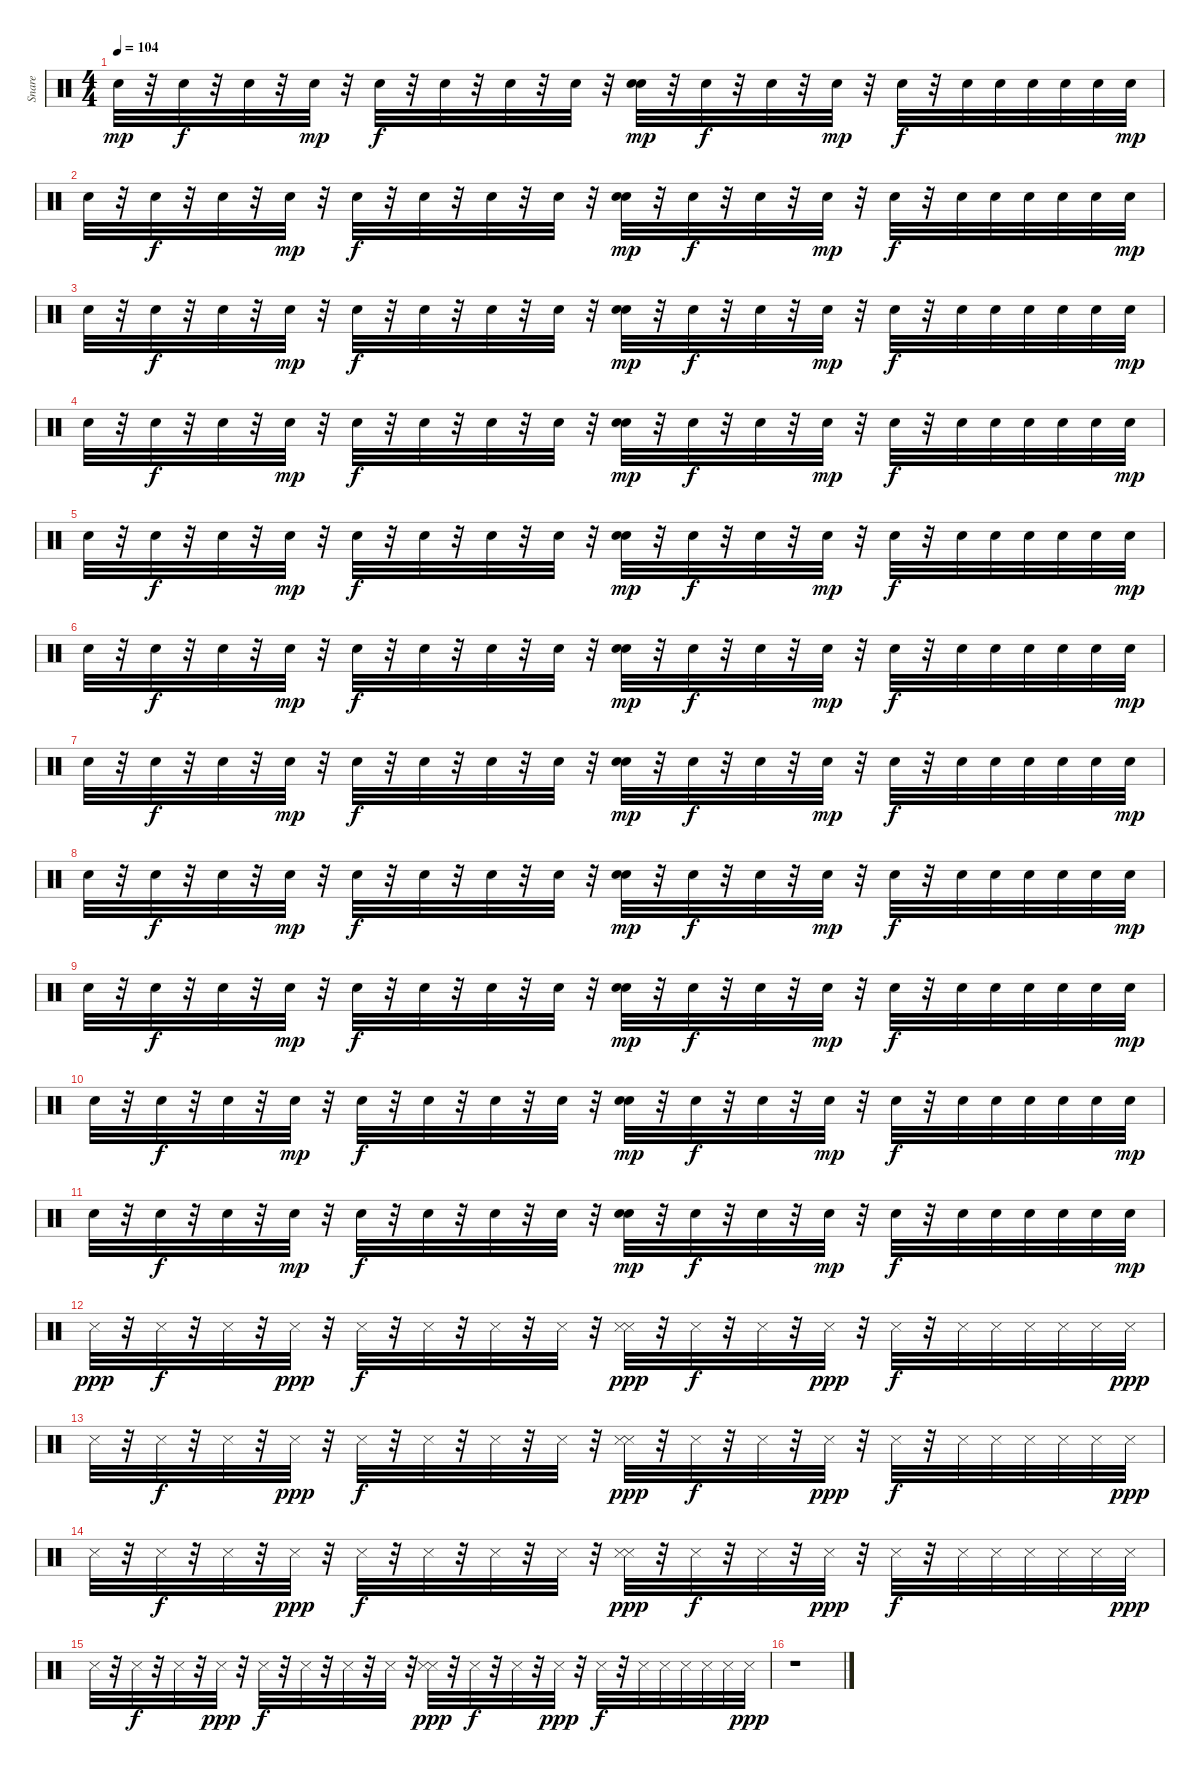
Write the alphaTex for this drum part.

\track ("Snare" "Snare") {instrument percussion}
\staff {score}
\articulation defaults
\ts (4 4)
\tempo 104
\clef neutral
\ks c "Snare (hit) 2".32{dy mp}
r.32 "Snare (hit) 2".32{dy f} r.32 "Snare (hit) 2".32 r.32 "Snare (hit) 2".32{dy mp} r.32 "Snare (hit) 2".32{dy f} r.32 "Snare (hit) 2".32 r.32 "Snare (hit) 2".32 r.32 "Snare (hit) 2".32 r.32 ("Snare (hit) 2" "Snare (hit) 2").32{dy mp} r.32 "Snare (hit) 2".32{dy f} r.32 "Snare (hit) 2".32 r.32 "Snare (hit) 2".32{dy mp} r.32 "Snare (hit) 2".32{dy f} r.32 "Snare (hit) 2".32 "Snare (hit) 2".32 "Snare (hit) 2".32 "Snare (hit) 2".32 "Snare (hit) 2".32 "Snare (hit) 2".32{dy mp} |
"Snare (hit) 2".32 r.32 "Snare (hit) 2".32{dy f} r.32 "Snare (hit) 2".32 r.32 "Snare (hit) 2".32{dy mp} r.32 "Snare (hit) 2".32{dy f} r.32 "Snare (hit) 2".32 r.32 "Snare (hit) 2".32 r.32 "Snare (hit) 2".32 r.32 ("Snare (hit) 2" "Snare (hit) 2").32{dy mp} r.32 "Snare (hit) 2".32{dy f} r.32 "Snare (hit) 2".32 r.32 "Snare (hit) 2".32{dy mp} r.32 "Snare (hit) 2".32{dy f} r.32 "Snare (hit) 2".32 "Snare (hit) 2".32 "Snare (hit) 2".32 "Snare (hit) 2".32 "Snare (hit) 2".32 "Snare (hit) 2".32{dy mp} |
"Snare (hit) 2".32 r.32 "Snare (hit) 2".32{dy f} r.32 "Snare (hit) 2".32 r.32 "Snare (hit) 2".32{dy mp} r.32 "Snare (hit) 2".32{dy f} r.32 "Snare (hit) 2".32 r.32 "Snare (hit) 2".32 r.32 "Snare (hit) 2".32 r.32 ("Snare (hit) 2" "Snare (hit) 2").32{dy mp} r.32 "Snare (hit) 2".32{dy f} r.32 "Snare (hit) 2".32 r.32 "Snare (hit) 2".32{dy mp} r.32 "Snare (hit) 2".32{dy f} r.32 "Snare (hit) 2".32 "Snare (hit) 2".32 "Snare (hit) 2".32 "Snare (hit) 2".32 "Snare (hit) 2".32 "Snare (hit) 2".32{dy mp} |
"Snare (hit) 2".32 r.32 "Snare (hit) 2".32{dy f} r.32 "Snare (hit) 2".32 r.32 "Snare (hit) 2".32{dy mp} r.32 "Snare (hit) 2".32{dy f} r.32 "Snare (hit) 2".32 r.32 "Snare (hit) 2".32 r.32 "Snare (hit) 2".32 r.32 ("Snare (hit) 2" "Snare (hit) 2").32{dy mp} r.32 "Snare (hit) 2".32{dy f} r.32 "Snare (hit) 2".32 r.32 "Snare (hit) 2".32{dy mp} r.32 "Snare (hit) 2".32{dy f} r.32 "Snare (hit) 2".32 "Snare (hit) 2".32 "Snare (hit) 2".32 "Snare (hit) 2".32 "Snare (hit) 2".32 "Snare (hit) 2".32{dy mp} |
"Snare (hit) 2".32 r.32 "Snare (hit) 2".32{dy f} r.32 "Snare (hit) 2".32 r.32 "Snare (hit) 2".32{dy mp} r.32 "Snare (hit) 2".32{dy f} r.32 "Snare (hit) 2".32 r.32 "Snare (hit) 2".32 r.32 "Snare (hit) 2".32 r.32 ("Snare (hit) 2" "Snare (hit) 2").32{dy mp} r.32 "Snare (hit) 2".32{dy f} r.32 "Snare (hit) 2".32 r.32 "Snare (hit) 2".32{dy mp} r.32 "Snare (hit) 2".32{dy f} r.32 "Snare (hit) 2".32 "Snare (hit) 2".32 "Snare (hit) 2".32 "Snare (hit) 2".32 "Snare (hit) 2".32 "Snare (hit) 2".32{dy mp} |
"Snare (hit) 2".32 r.32 "Snare (hit) 2".32{dy f} r.32 "Snare (hit) 2".32 r.32 "Snare (hit) 2".32{dy mp} r.32 "Snare (hit) 2".32{dy f} r.32 "Snare (hit) 2".32 r.32 "Snare (hit) 2".32 r.32 "Snare (hit) 2".32 r.32 ("Snare (hit) 2" "Snare (hit) 2").32{dy mp} r.32 "Snare (hit) 2".32{dy f} r.32 "Snare (hit) 2".32 r.32 "Snare (hit) 2".32{dy mp} r.32 "Snare (hit) 2".32{dy f} r.32 "Snare (hit) 2".32 "Snare (hit) 2".32 "Snare (hit) 2".32 "Snare (hit) 2".32 "Snare (hit) 2".32 "Snare (hit) 2".32{dy mp} |
"Snare (hit) 2".32 r.32 "Snare (hit) 2".32{dy f} r.32 "Snare (hit) 2".32 r.32 "Snare (hit) 2".32{dy mp} r.32 "Snare (hit) 2".32{dy f} r.32 "Snare (hit) 2".32 r.32 "Snare (hit) 2".32 r.32 "Snare (hit) 2".32 r.32 ("Snare (hit) 2" "Snare (hit) 2").32{dy mp} r.32 "Snare (hit) 2".32{dy f} r.32 "Snare (hit) 2".32 r.32 "Snare (hit) 2".32{dy mp} r.32 "Snare (hit) 2".32{dy f} r.32 "Snare (hit) 2".32 "Snare (hit) 2".32 "Snare (hit) 2".32 "Snare (hit) 2".32 "Snare (hit) 2".32 "Snare (hit) 2".32{dy mp} |
"Snare (hit) 2".32 r.32 "Snare (hit) 2".32{dy f} r.32 "Snare (hit) 2".32 r.32 "Snare (hit) 2".32{dy mp} r.32 "Snare (hit) 2".32{dy f} r.32 "Snare (hit) 2".32 r.32 "Snare (hit) 2".32 r.32 "Snare (hit) 2".32 r.32 ("Snare (hit) 2" "Snare (hit) 2").32{dy mp} r.32 "Snare (hit) 2".32{dy f} r.32 "Snare (hit) 2".32 r.32 "Snare (hit) 2".32{dy mp} r.32 "Snare (hit) 2".32{dy f} r.32 "Snare (hit) 2".32 "Snare (hit) 2".32 "Snare (hit) 2".32 "Snare (hit) 2".32 "Snare (hit) 2".32 "Snare (hit) 2".32{dy mp} |
"Snare (hit) 2".32 r.32 "Snare (hit) 2".32{dy f} r.32 "Snare (hit) 2".32 r.32 "Snare (hit) 2".32{dy mp} r.32 "Snare (hit) 2".32{dy f} r.32 "Snare (hit) 2".32 r.32 "Snare (hit) 2".32 r.32 "Snare (hit) 2".32 r.32 ("Snare (hit) 2" "Snare (hit) 2").32{dy mp} r.32 "Snare (hit) 2".32{dy f} r.32 "Snare (hit) 2".32 r.32 "Snare (hit) 2".32{dy mp} r.32 "Snare (hit) 2".32{dy f} r.32 "Snare (hit) 2".32 "Snare (hit) 2".32 "Snare (hit) 2".32 "Snare (hit) 2".32 "Snare (hit) 2".32 "Snare (hit) 2".32{dy mp} |
"Snare (hit) 2".32 r.32 "Snare (hit) 2".32{dy f} r.32 "Snare (hit) 2".32 r.32 "Snare (hit) 2".32{dy mp} r.32 "Snare (hit) 2".32{dy f} r.32 "Snare (hit) 2".32 r.32 "Snare (hit) 2".32 r.32 "Snare (hit) 2".32 r.32 ("Snare (hit) 2" "Snare (hit) 2").32{dy mp} r.32 "Snare (hit) 2".32{dy f} r.32 "Snare (hit) 2".32 r.32 "Snare (hit) 2".32{dy mp} r.32 "Snare (hit) 2".32{dy f} r.32 "Snare (hit) 2".32 "Snare (hit) 2".32 "Snare (hit) 2".32 "Snare (hit) 2".32 "Snare (hit) 2".32 "Snare (hit) 2".32{dy mp} |
"Snare (hit) 2".32 r.32 "Snare (hit) 2".32{dy f} r.32 "Snare (hit) 2".32 r.32 "Snare (hit) 2".32{dy mp} r.32 "Snare (hit) 2".32{dy f} r.32 "Snare (hit) 2".32 r.32 "Snare (hit) 2".32 r.32 "Snare (hit) 2".32 r.32 ("Snare (hit) 2" "Snare (hit) 2").32{dy mp} r.32 "Snare (hit) 2".32{dy f} r.32 "Snare (hit) 2".32 r.32 "Snare (hit) 2".32{dy mp} r.32 "Snare (hit) 2".32{dy f} r.32 "Snare (hit) 2".32 "Snare (hit) 2".32 "Snare (hit) 2".32 "Snare (hit) 2".32 "Snare (hit) 2".32 "Snare (hit) 2".32{dy mp} |
"Snare (side stick) 3".32{dy ppp} r.32 "Snare (side stick) 3".32{dy f} r.32 "Snare (side stick) 3".32 r.32 "Snare (side stick) 3".32{dy ppp} r.32 "Snare (side stick) 3".32{dy f} r.32 "Snare (side stick) 3".32 r.32 "Snare (side stick) 3".32 r.32 "Snare (side stick) 3".32 r.32 ("Snare (side stick) 3" "Snare (side stick) 3").32{dy ppp} r.32 "Snare (side stick) 3".32{dy f} r.32 "Snare (side stick) 3".32 r.32 "Snare (side stick) 3".32{dy ppp} r.32 "Snare (side stick) 3".32{dy f} r.32 "Snare (side stick) 3".32 "Snare (side stick) 3".32 "Snare (side stick) 3".32 "Snare (side stick) 3".32 "Snare (side stick) 3".32 "Snare (side stick) 3".32{dy ppp} |
"Snare (side stick) 3".32 r.32 "Snare (side stick) 3".32{dy f} r.32 "Snare (side stick) 3".32 r.32 "Snare (side stick) 3".32{dy ppp} r.32 "Snare (side stick) 3".32{dy f} r.32 "Snare (side stick) 3".32 r.32 "Snare (side stick) 3".32 r.32 "Snare (side stick) 3".32 r.32 ("Snare (side stick) 3" "Snare (side stick) 3").32{dy ppp} r.32 "Snare (side stick) 3".32{dy f} r.32 "Snare (side stick) 3".32 r.32 "Snare (side stick) 3".32{dy ppp} r.32 "Snare (side stick) 3".32{dy f} r.32 "Snare (side stick) 3".32 "Snare (side stick) 3".32 "Snare (side stick) 3".32 "Snare (side stick) 3".32 "Snare (side stick) 3".32 "Snare (side stick) 3".32{dy ppp} |
"Snare (side stick) 3".32 r.32 "Snare (side stick) 3".32{dy f} r.32 "Snare (side stick) 3".32 r.32 "Snare (side stick) 3".32{dy ppp} r.32 "Snare (side stick) 3".32{dy f} r.32 "Snare (side stick) 3".32 r.32 "Snare (side stick) 3".32 r.32 "Snare (side stick) 3".32 r.32 ("Snare (side stick) 3" "Snare (side stick) 3").32{dy ppp} r.32 "Snare (side stick) 3".32{dy f} r.32 "Snare (side stick) 3".32 r.32 "Snare (side stick) 3".32{dy ppp} r.32 "Snare (side stick) 3".32{dy f} r.32 "Snare (side stick) 3".32 "Snare (side stick) 3".32 "Snare (side stick) 3".32 "Snare (side stick) 3".32 "Snare (side stick) 3".32 "Snare (side stick) 3".32{dy ppp} |
"Snare (side stick) 3".32 r.32 "Snare (side stick) 3".32{dy f} r.32 "Snare (side stick) 3".32 r.32 "Snare (side stick) 3".32{dy ppp} r.32 "Snare (side stick) 3".32{dy f} r.32 "Snare (side stick) 3".32 r.32 "Snare (side stick) 3".32 r.32 "Snare (side stick) 3".32 r.32 ("Snare (side stick) 3" "Snare (side stick) 3").32{dy ppp} r.32 "Snare (side stick) 3".32{dy f} r.32 "Snare (side stick) 3".32 r.32 "Snare (side stick) 3".32{dy ppp} r.32 "Snare (side stick) 3".32{dy f} r.32 "Snare (side stick) 3".32 "Snare (side stick) 3".32 "Snare (side stick) 3".32 "Snare (side stick) 3".32 "Snare (side stick) 3".32 "Snare (side stick) 3".32{dy ppp} |
r.1
